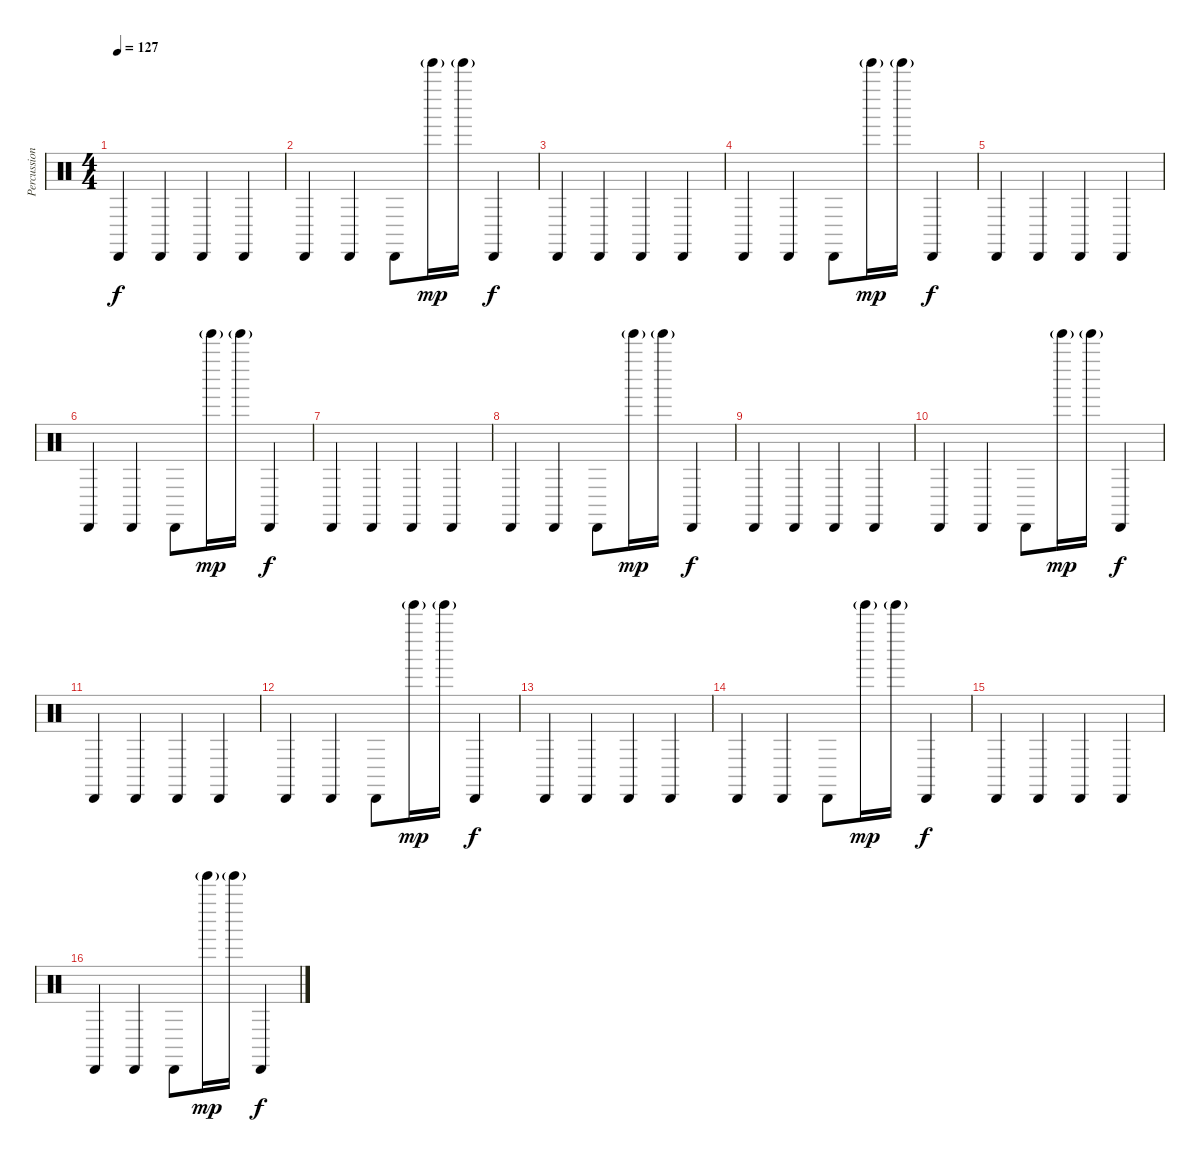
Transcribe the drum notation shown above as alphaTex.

\track ("Percussion" "Percussion") {instrument percussion}
\staff {score}
\articulation defaults
\ts (4 4)
\tempo 127
\clef neutral
\ks c "Cabasa (hit)".4{dy f} "Cabasa (hit)".4 "Cabasa (hit)".4 "Cabasa (hit)".4
|
"Cabasa (hit)".4 "Cabasa (hit)".4 "Cabasa (hit)".8 "Tinkle Bell (hit)"{g}.16{dy mp} "Tinkle Bell (hit)"{g}.16 "Cabasa (hit)".4{dy f} |
"Cabasa (hit)".4 "Cabasa (hit)".4 "Cabasa (hit)".4 "Cabasa (hit)".4 |
"Cabasa (hit)".4 "Cabasa (hit)".4 "Cabasa (hit)".8 "Tinkle Bell (hit)"{g}.16{dy mp} "Tinkle Bell (hit)"{g}.16 "Cabasa (hit)".4{dy f} |
"Cabasa (hit)".4 "Cabasa (hit)".4 "Cabasa (hit)".4 "Cabasa (hit)".4 |
"Cabasa (hit)".4 "Cabasa (hit)".4 "Cabasa (hit)".8 "Tinkle Bell (hit)"{g}.16{dy mp} "Tinkle Bell (hit)"{g}.16 "Cabasa (hit)".4{dy f} |
"Cabasa (hit)".4 "Cabasa (hit)".4 "Cabasa (hit)".4 "Cabasa (hit)".4 |
"Cabasa (hit)".4 "Cabasa (hit)".4 "Cabasa (hit)".8 "Tinkle Bell (hit)"{g}.16{dy mp} "Tinkle Bell (hit)"{g}.16 "Cabasa (hit)".4{dy f} |
"Cabasa (hit)".4 "Cabasa (hit)".4 "Cabasa (hit)".4 "Cabasa (hit)".4 |
"Cabasa (hit)".4 "Cabasa (hit)".4 "Cabasa (hit)".8 "Tinkle Bell (hit)"{g}.16{dy mp} "Tinkle Bell (hit)"{g}.16 "Cabasa (hit)".4{dy f} |
"Cabasa (hit)".4 "Cabasa (hit)".4 "Cabasa (hit)".4 "Cabasa (hit)".4 |
"Cabasa (hit)".4 "Cabasa (hit)".4 "Cabasa (hit)".8 "Tinkle Bell (hit)"{g}.16{dy mp} "Tinkle Bell (hit)"{g}.16 "Cabasa (hit)".4{dy f} |
"Cabasa (hit)".4 "Cabasa (hit)".4 "Cabasa (hit)".4 "Cabasa (hit)".4 |
"Cabasa (hit)".4 "Cabasa (hit)".4 "Cabasa (hit)".8 "Tinkle Bell (hit)"{g}.16{dy mp} "Tinkle Bell (hit)"{g}.16 "Cabasa (hit)".4{dy f} |
"Cabasa (hit)".4 "Cabasa (hit)".4 "Cabasa (hit)".4 "Cabasa (hit)".4 |
"Cabasa (hit)".4 "Cabasa (hit)".4 "Cabasa (hit)".8 "Tinkle Bell (hit)"{g}.16{dy mp} "Tinkle Bell (hit)"{g}.16 "Cabasa (hit)".4{dy f}
